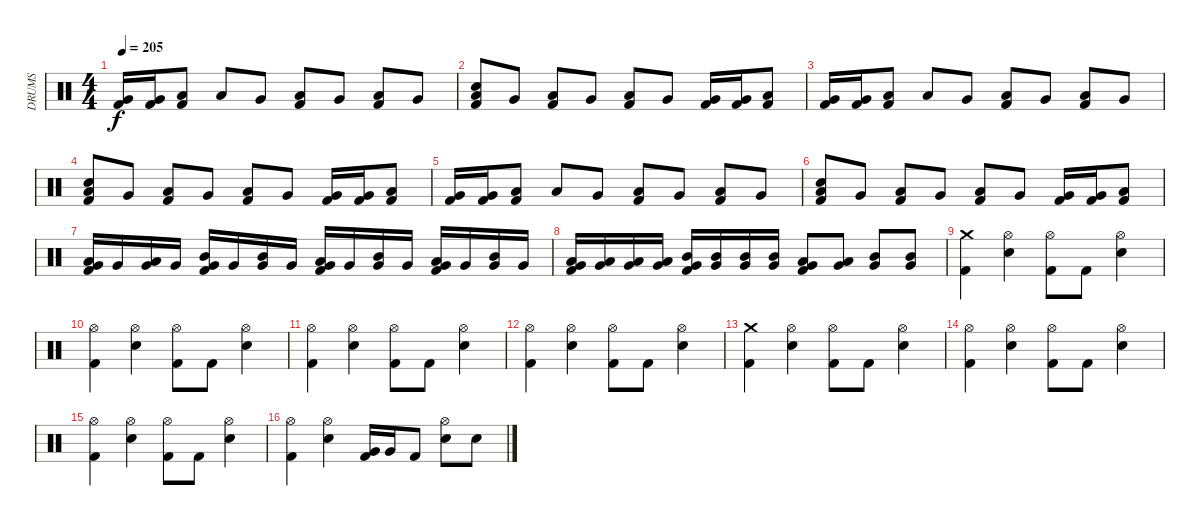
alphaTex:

\track ("DRUMS" "DRUMS") {instrument percussion}
\staff {score}
\articulation defaults
\ts (4 4)
\tempo 205
\clef neutral
\ks c
("Very Low Tom (hit)" "Kick (hit) 2").16{dy f} ("Very Low Tom (hit)" "Kick (hit) 2").16 ("Low Tom (hit)" "Kick (hit) 2").8 "Low Tom (hit)".8 "Very Low Tom (hit)".8 ("Low Tom (hit)" "Kick (hit) 2").8 "Very Low Tom (hit)".8 ("Low Tom (hit)" "Kick (hit) 2").8 "Very Low Tom (hit)".8 |
("Snare (hit) 2" "Low Tom (hit)" "Kick (hit) 2").8 "Very Low Tom (hit)".8 ("Low Tom (hit)" "Kick (hit) 2").8 "Very Low Tom (hit)".8 ("Low Tom (hit)" "Kick (hit) 2").8 "Very Low Tom (hit)".8 ("Very Low Tom (hit)" "Kick (hit) 2").16 ("Very Low Tom (hit)" "Kick (hit) 2").16 ("Low Tom (hit)" "Kick (hit) 2").8 |
("Very Low Tom (hit)" "Kick (hit) 2").16 ("Very Low Tom (hit)" "Kick (hit) 2").16 ("Low Tom (hit)" "Kick (hit) 2").8 "Low Tom (hit)".8 "Very Low Tom (hit)".8 ("Low Tom (hit)" "Kick (hit) 2").8 "Very Low Tom (hit)".8 ("Low Tom (hit)" "Kick (hit) 2").8 "Very Low Tom (hit)".8 |
("Snare (hit) 2" "Low Tom (hit)" "Kick (hit) 2").8 "Very Low Tom (hit)".8 ("Low Tom (hit)" "Kick (hit) 2").8 "Very Low Tom (hit)".8 ("Low Tom (hit)" "Kick (hit) 2").8 "Very Low Tom (hit)".8 ("Very Low Tom (hit)" "Kick (hit) 2").16 ("Very Low Tom (hit)" "Kick (hit) 2").16 ("Low Tom (hit)" "Kick (hit) 2").8 |
("Very Low Tom (hit)" "Kick (hit) 2").16 ("Very Low Tom (hit)" "Kick (hit) 2").16 ("Low Tom (hit)" "Kick (hit) 2").8 "Low Tom (hit)".8 "Very Low Tom (hit)".8 ("Low Tom (hit)" "Kick (hit) 2").8 "Very Low Tom (hit)".8 ("Low Tom (hit)" "Kick (hit) 2").8 "Very Low Tom (hit)".8 |
("Snare (hit) 2" "Low Tom (hit)" "Kick (hit) 2").8 "Very Low Tom (hit)".8 ("Low Tom (hit)" "Kick (hit) 2").8 "Very Low Tom (hit)".8 ("Low Tom (hit)" "Kick (hit) 2").8 "Very Low Tom (hit)".8 ("Very Low Tom (hit)" "Kick (hit) 2").16 ("Very Low Tom (hit)" "Kick (hit) 2").16 ("Low Tom (hit)" "Kick (hit) 2").8 |
("Kick (hit) 2" "Low Tom (hit)" "Very Low Tom (hit)").16 "Very Low Tom (hit)".16 ("Low Tom (hit)" "Very Low Tom (hit)").16 "Very Low Tom (hit)".16 ("Kick (hit) 2" "Mid Tom (hit)" "Very Low Tom (hit)").16 "Very Low Tom (hit)".16 ("Mid Tom (hit)" "Very Low Tom (hit)").16 "Very Low Tom (hit)".16 ("Kick (hit) 2" "Low Tom (hit)" "Very Low Tom (hit)").16 "Very Low Tom (hit)".16 ("Mid Tom (hit)" "Very Low Tom (hit)").16 "Very Low Tom (hit)".16 ("Kick (hit) 2" "Low Tom (hit)" "Very Low Tom (hit)").16 "Very Low Tom (hit)".16 ("Mid Tom (hit)" "Very Low Tom (hit)").16 "Very Low Tom (hit)".16 |
("Kick (hit) 2" "Low Tom (hit)" "Very Low Tom (hit)").16 ("Low Tom (hit)" "Very Low Tom (hit)").16 ("Low Tom (hit)" "Very Low Tom (hit)").16 ("Low Tom (hit)" "Very Low Tom (hit)").16 ("Kick (hit) 2" "Mid Tom (hit)" "Very Low Tom (hit)").16 ("Mid Tom (hit)" "Very Low Tom (hit)").16 ("Mid Tom (hit)" "Very Low Tom (hit)").16 ("Mid Tom (hit)" "Very Low Tom (hit)").16 ("Kick (hit) 2" "Low Tom (hit)" "Very Low Tom (hit)").8 ("Low Tom (hit)" "Very Low Tom (hit)").8 ("Mid Tom (hit)" "Very Low Tom (hit)").8 ("Mid Tom (hit)" "Very Low Tom (hit)").8 |
("Crash medium (hit)" "Kick (hit) 2").4 ("Hi-Hat (open)" "Snare (hit) 2").4 ("Hi-Hat (open)" "Kick (hit) 2").8 "Kick (hit) 2".8 ("Hi-Hat (open)" "Snare (hit) 2").4 |
("Hi-Hat (open)" "Kick (hit) 2").4 ("Hi-Hat (open)" "Snare (hit) 2").4 ("Hi-Hat (open)" "Kick (hit) 2").8 "Kick (hit) 2".8 ("Hi-Hat (open)" "Snare (hit) 2").4 |
("Hi-Hat (open)" "Kick (hit) 2").4 ("Hi-Hat (open)" "Snare (hit) 2").4 ("Hi-Hat (open)" "Kick (hit) 2").8 "Kick (hit) 2".8 ("Hi-Hat (open)" "Snare (hit) 2").4 |
("Hi-Hat (open)" "Kick (hit) 2").4 ("Hi-Hat (open)" "Snare (hit) 2").4 ("Hi-Hat (open)" "Kick (hit) 2").8 "Kick (hit) 2".8 ("Hi-Hat (open)" "Snare (hit) 2").4 |
("Crash medium (hit)" "Kick (hit) 2").4 ("Hi-Hat (open)" "Snare (hit) 2").4 ("Hi-Hat (open)" "Kick (hit) 2").8 "Kick (hit) 2".8 ("Hi-Hat (open)" "Snare (hit) 2").4 |
("Hi-Hat (open)" "Kick (hit) 2").4 ("Hi-Hat (open)" "Snare (hit) 2").4 ("Hi-Hat (open)" "Kick (hit) 2").8 "Kick (hit) 2".8 ("Hi-Hat (open)" "Snare (hit) 2").4 |
("Hi-Hat (open)" "Kick (hit) 2").4 ("Hi-Hat (open)" "Snare (hit) 2").4 ("Hi-Hat (open)" "Kick (hit) 2").8 "Kick (hit) 2".8 ("Hi-Hat (open)" "Snare (hit) 2").4 |
("Hi-Hat (open)" "Kick (hit) 2").4 ("Hi-Hat (open)" "Snare (hit) 2").4 ("Very Low Tom (hit)" "Kick (hit) 2").16 "Very Low Tom (hit)".16 "Kick (hit) 2".8 ("Hi-Hat (open)" "Snare (hit) 2").8 "Snare (hit) 2".8
